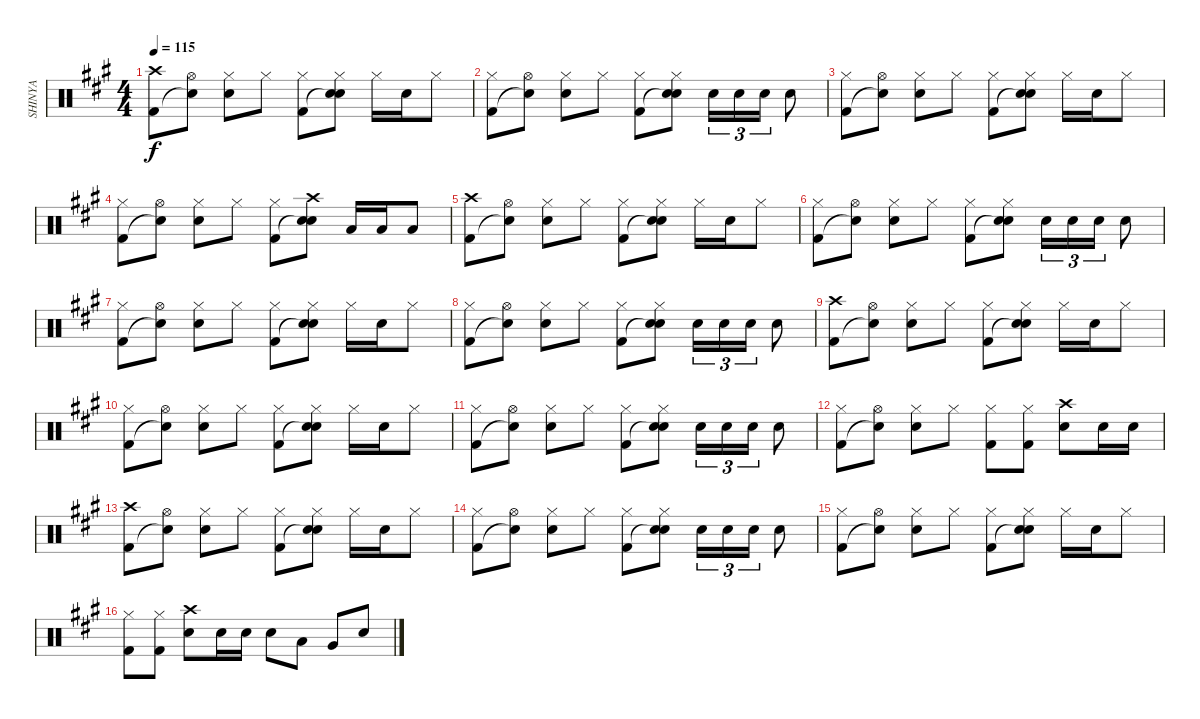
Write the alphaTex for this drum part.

\track ("SHINYA" "SHINYA") {instrument percussion}
\staff {score}
\articulation defaults
\ts (4 4)
\tempo 115
\clef neutral
\ks a
("Crash high (hit)" "Kick (hit) 2").8{dy f} ("Hi-Hat (open)" "Snare (hit)"{t}).8 ("Hi-Hat (closed)" "Electric Snare (hit)").8 "Hi-Hat (closed)".8 ("Hi-Hat (closed)" "Kick (hit) 2").8 ("Hi-Hat (closed)" "Snare (hit)"{t} "Electric Snare (hit)").8 "Hi-Hat (closed)".16 "Electric Snare (hit)".16 "Hi-Hat (closed)".8 |
("Hi-Hat (closed)" "Kick (hit) 2").8 ("Hi-Hat (open)" "Snare (hit)"{t}).8 ("Hi-Hat (closed)" "Electric Snare (hit)").8 "Hi-Hat (closed)".8 ("Hi-Hat (closed)" "Kick (hit) 2").8 ("Hi-Hat (closed)" "Snare (hit)"{t} "Electric Snare (hit)").8 "Electric Snare (hit)".16{tu (3 2)} "Electric Snare (hit)".16{tu (3 2)} "Electric Snare (hit)".16{tu (3 2)} "Electric Snare (hit)".8 |
("Hi-Hat (closed)" "Kick (hit) 2").8 ("Hi-Hat (open)" "Snare (hit)"{t}).8 ("Hi-Hat (closed)" "Electric Snare (hit)").8 "Hi-Hat (closed)".8 ("Hi-Hat (closed)" "Kick (hit) 2").8 ("Hi-Hat (closed)" "Snare (hit)"{t} "Electric Snare (hit)").8 "Hi-Hat (closed)".16 "Electric Snare (hit)".16 "Hi-Hat (closed)".8 |
("Hi-Hat (closed)" "Kick (hit) 2").8 ("Hi-Hat (open)" "Snare (hit)"{t}).8 ("Hi-Hat (closed)" "Electric Snare (hit)").8 "Hi-Hat (closed)".8 ("Hi-Hat (closed)" "Kick (hit) 2").8 ("Crash high (hit)" "Snare (hit)"{t} "Electric Snare (hit)").8 "Low Tom (hit)".16 "Low Tom (hit)".16 "Low Tom (hit)".8 |
("Crash high (hit)" "Kick (hit) 2").8 ("Hi-Hat (open)" "Snare (hit)"{t}).8 ("Hi-Hat (closed)" "Electric Snare (hit)").8 "Hi-Hat (closed)".8 ("Hi-Hat (closed)" "Kick (hit) 2").8 ("Hi-Hat (closed)" "Snare (hit)"{t} "Electric Snare (hit)").8 "Hi-Hat (closed)".16 "Electric Snare (hit)".16 "Hi-Hat (closed)".8 |
("Hi-Hat (closed)" "Kick (hit) 2").8 ("Hi-Hat (open)" "Snare (hit)"{t}).8 ("Hi-Hat (closed)" "Electric Snare (hit)").8 "Hi-Hat (closed)".8 ("Hi-Hat (closed)" "Kick (hit) 2").8 ("Hi-Hat (closed)" "Snare (hit)"{t} "Electric Snare (hit)").8 "Electric Snare (hit)".16{tu (3 2)} "Electric Snare (hit)".16{tu (3 2)} "Electric Snare (hit)".16{tu (3 2)} "Electric Snare (hit)".8 |
("Hi-Hat (closed)" "Kick (hit) 2").8 ("Hi-Hat (open)" "Snare (hit)"{t}).8 ("Hi-Hat (closed)" "Electric Snare (hit)").8 "Hi-Hat (closed)".8 ("Hi-Hat (closed)" "Kick (hit) 2").8 ("Hi-Hat (closed)" "Snare (hit)"{t} "Electric Snare (hit)").8 "Hi-Hat (closed)".16 "Electric Snare (hit)".16 "Hi-Hat (closed)".8 |
("Hi-Hat (closed)" "Kick (hit) 2").8 ("Hi-Hat (open)" "Snare (hit)"{t}).8 ("Hi-Hat (closed)" "Electric Snare (hit)").8 "Hi-Hat (closed)".8 ("Hi-Hat (closed)" "Kick (hit) 2").8 ("Hi-Hat (closed)" "Snare (hit)"{t} "Electric Snare (hit)").8 "Electric Snare (hit)".16{tu (3 2)} "Electric Snare (hit)".16{tu (3 2)} "Electric Snare (hit)".16{tu (3 2)} "Electric Snare (hit)".8 |
("Crash high (hit)" "Kick (hit) 2").8 ("Hi-Hat (open)" "Snare (hit)"{t}).8 ("Hi-Hat (closed)" "Electric Snare (hit)").8 "Hi-Hat (closed)".8 ("Hi-Hat (closed)" "Kick (hit) 2").8 ("Hi-Hat (closed)" "Snare (hit)"{t} "Electric Snare (hit)").8 "Hi-Hat (closed)".16 "Electric Snare (hit)".16 "Hi-Hat (closed)".8 |
("Hi-Hat (closed)" "Kick (hit) 2").8 ("Hi-Hat (open)" "Snare (hit)"{t}).8 ("Hi-Hat (closed)" "Electric Snare (hit)").8 "Hi-Hat (closed)".8 ("Hi-Hat (closed)" "Kick (hit) 2").8 ("Hi-Hat (closed)" "Snare (hit)"{t} "Electric Snare (hit)").8 "Hi-Hat (closed)".16 "Electric Snare (hit)".16 "Hi-Hat (closed)".8 |
("Hi-Hat (closed)" "Kick (hit) 2").8 ("Hi-Hat (open)" "Snare (hit)"{t}).8 ("Hi-Hat (closed)" "Electric Snare (hit)").8 "Hi-Hat (closed)".8 ("Hi-Hat (closed)" "Kick (hit) 2").8 ("Hi-Hat (closed)" "Snare (hit)"{t} "Electric Snare (hit)").8 "Electric Snare (hit)".16{tu (3 2)} "Electric Snare (hit)".16{tu (3 2)} "Electric Snare (hit)".16{tu (3 2)} "Electric Snare (hit)".8 |
("Hi-Hat (closed)" "Kick (hit) 2").8 ("Hi-Hat (open)" "Snare (hit)"{t}).8 ("Hi-Hat (closed)" "Electric Snare (hit)").8 "Hi-Hat (closed)".8 ("Hi-Hat (closed)" "Kick (hit) 2").8 ("Hi-Hat (closed)" "Kick (hit) 2").8 ("Crash high (hit)" "Electric Snare (hit)").8 "Electric Snare (hit)".16 "Electric Snare (hit)".16 |
("Crash high (hit)" "Kick (hit) 2").8 ("Hi-Hat (open)" "Snare (hit)"{t}).8 ("Hi-Hat (closed)" "Electric Snare (hit)").8 "Hi-Hat (closed)".8 ("Hi-Hat (closed)" "Kick (hit) 2").8 ("Hi-Hat (closed)" "Snare (hit)"{t} "Electric Snare (hit)").8 "Hi-Hat (closed)".16 "Electric Snare (hit)".16 "Hi-Hat (closed)".8 |
("Hi-Hat (closed)" "Kick (hit) 2").8 ("Hi-Hat (open)" "Snare (hit)"{t}).8 ("Hi-Hat (closed)" "Electric Snare (hit)").8 "Hi-Hat (closed)".8 ("Hi-Hat (closed)" "Kick (hit) 2").8 ("Hi-Hat (closed)" "Snare (hit)"{t} "Electric Snare (hit)").8 "Electric Snare (hit)".16{tu (3 2)} "Electric Snare (hit)".16{tu (3 2)} "Electric Snare (hit)".16{tu (3 2)} "Electric Snare (hit)".8 |
("Hi-Hat (closed)" "Kick (hit) 2").8 ("Hi-Hat (open)" "Snare (hit)"{t}).8 ("Hi-Hat (closed)" "Electric Snare (hit)").8 "Hi-Hat (closed)".8 ("Hi-Hat (closed)" "Kick (hit) 2").8 ("Hi-Hat (closed)" "Snare (hit)"{t} "Electric Snare (hit)").8 "Hi-Hat (closed)".16 "Electric Snare (hit)".16 "Hi-Hat (closed)".8 |
("Hi-Hat (closed)" "Kick (hit) 2").8 ("Hi-Hat (closed)" "Kick (hit) 2").8 ("Crash high (hit)" "Electric Snare (hit)").8 "Electric Snare (hit)".16 "Electric Snare (hit)".16 "Electric Snare (hit)".8 "Low Tom (hit)".8 "Very Low Tom (hit)".8 "Electric Snare (hit)".8
